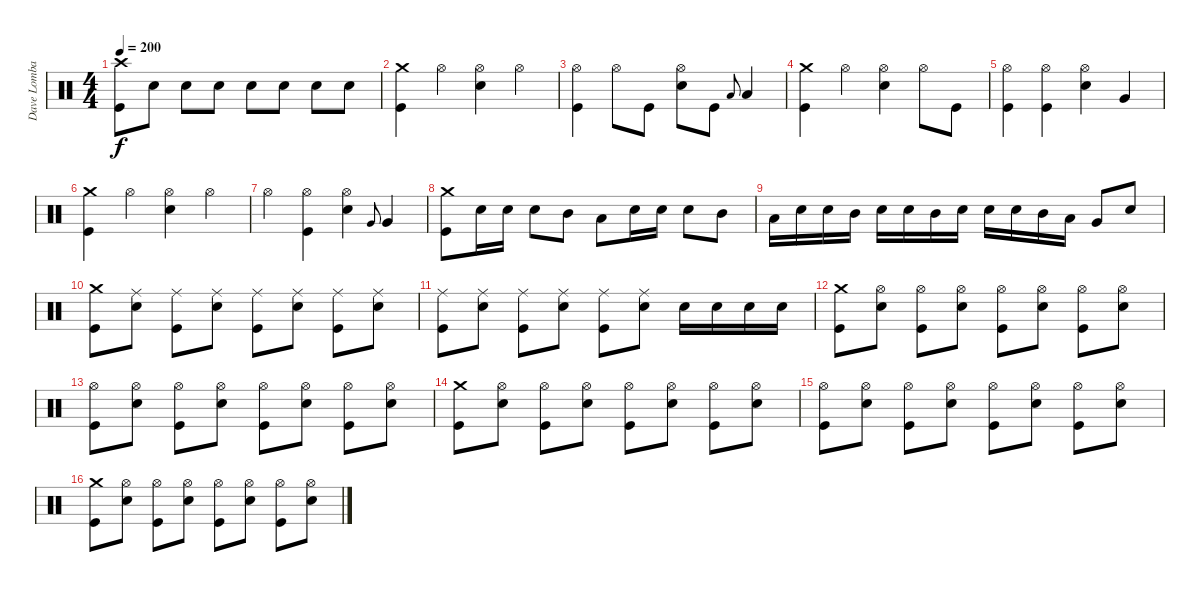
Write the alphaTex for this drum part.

\track ("Dave Lombardo" "Dave Lomba") {instrument percussion}
\staff {score}
\articulation defaults
\ts (4 4)
\tempo 200
\clef neutral
\ks c
("Crash high (hit)" "Kick (hit)").8{dy f} "Snare (hit) 2".8 "Snare (hit) 2".8 "Snare (hit) 2".8 "Snare (hit) 2".8 "Snare (hit) 2".8 "Snare (hit) 2".8 "Snare (hit) 2".8 |
("Crash medium (hit)" "Kick (hit)").4 "Hi-Hat (open)".4 ("Hi-Hat (open)" "Snare (hit) 2").4 "Hi-Hat (open)".4 |
("Hi-Hat (open)" "Kick (hit)").4 "Hi-Hat (open)".8 "Kick (hit)".8 ("Hi-Hat (open)" "Snare (hit) 2").8 "Kick (hit)".8 "Low Floor Tom (hit)".8{gr onbeat} "Low Floor Tom (hit)".4 |
("Crash medium (hit)" "Kick (hit)").4 "Hi-Hat (open)".4 ("Hi-Hat (open)" "Snare (hit) 2").4 "Hi-Hat (open)".8 "Kick (hit)".8 |
("Hi-Hat (open)" "Kick (hit)").4 ("Hi-Hat (open)" "Kick (hit)").4 ("Hi-Hat (open)" "Snare (hit) 2").4 "Very Low Tom (hit)".4 |
("Crash medium (hit)" "Kick (hit)").4 "Hi-Hat (open)".4 ("Hi-Hat (open)" "Snare (hit) 2").4 "Hi-Hat (open)".4 |
"Hi-Hat (open)".4 ("Hi-Hat (open)" "Kick (hit)").4 ("Hi-Hat (open)" "Snare (hit) 2").4 "Very Low Tom (hit)".8{gr onbeat} "Very Low Tom (hit)".4 |
("Crash medium (hit)" "Kick (hit)").8 "Snare (hit) 2".16 "Snare (hit) 2".16 "Snare (hit) 2".8 "Mid Tom (hit)".8 "Low Tom (hit)".8 "Snare (hit) 2".16 "Snare (hit) 2".16 "Snare (hit) 2".8 "Mid Tom (hit)".8 |
"Low Tom (hit)".16 "Snare (hit) 2".16 "Snare (hit) 2".16 "Mid Tom (hit)".16 "Snare (hit) 2".16 "Snare (hit) 2".16 "Mid Tom (hit)".16 "Snare (hit) 2".16 "Snare (hit) 2".16 "Snare (hit) 2".16 "Mid Tom (hit)".16 "Low Tom (hit)".16 "Very Low Tom (hit)".8 "Snare (hit) 2".8 |
("Crash medium (hit)" "Kick (hit)").8 ("Ride (middle)" "Snare (hit) 2").8 ("Ride (middle)" "Kick (hit)").8 ("Ride (middle)" "Snare (hit) 2").8 ("Ride (middle)" "Kick (hit)").8 ("Ride (middle)" "Snare (hit) 2").8 ("Ride (middle)" "Kick (hit)").8 ("Ride (middle)" "Snare (hit) 2").8 |
("Ride (middle)" "Kick (hit)").8 ("Ride (middle)" "Snare (hit) 2").8 ("Ride (middle)" "Kick (hit)").8 ("Ride (middle)" "Snare (hit) 2").8 ("Ride (middle)" "Kick (hit)").8 ("Ride (middle)" "Snare (hit) 2").8 "Snare (hit) 2".16 "Snare (hit) 2".16 "Snare (hit) 2".16 "Snare (hit) 2".16 |
("Crash medium (hit)" "Kick (hit)").8 ("Hi-Hat (open)" "Snare (hit) 2").8 ("Hi-Hat (open)" "Kick (hit)").8 ("Hi-Hat (open)" "Snare (hit) 2").8 ("Hi-Hat (open)" "Kick (hit)").8 ("Hi-Hat (open)" "Snare (hit) 2").8 ("Hi-Hat (open)" "Kick (hit)").8 ("Hi-Hat (open)" "Snare (hit) 2").8 |
("Hi-Hat (open)" "Kick (hit)").8 ("Hi-Hat (open)" "Snare (hit) 2").8 ("Hi-Hat (open)" "Kick (hit)").8 ("Hi-Hat (open)" "Snare (hit) 2").8 ("Hi-Hat (open)" "Kick (hit)").8 ("Hi-Hat (open)" "Snare (hit) 2").8 ("Hi-Hat (open)" "Kick (hit)").8 ("Hi-Hat (open)" "Snare (hit) 2").8 |
("Crash medium (hit)" "Kick (hit)").8 ("Hi-Hat (open)" "Snare (hit) 2").8 ("Hi-Hat (open)" "Kick (hit)").8 ("Hi-Hat (open)" "Snare (hit) 2").8 ("Hi-Hat (open)" "Kick (hit)").8 ("Hi-Hat (open)" "Snare (hit) 2").8 ("Hi-Hat (open)" "Kick (hit)").8 ("Hi-Hat (open)" "Snare (hit) 2").8 |
("Hi-Hat (open)" "Kick (hit)").8 ("Hi-Hat (open)" "Snare (hit) 2").8 ("Hi-Hat (open)" "Kick (hit)").8 ("Hi-Hat (open)" "Snare (hit) 2").8 ("Hi-Hat (open)" "Kick (hit)").8 ("Hi-Hat (open)" "Snare (hit) 2").8 ("Hi-Hat (open)" "Kick (hit)").8 ("Hi-Hat (open)" "Snare (hit) 2").8 |
("Crash medium (hit)" "Kick (hit)").8 ("Hi-Hat (open)" "Snare (hit) 2").8 ("Hi-Hat (open)" "Kick (hit)").8 ("Hi-Hat (open)" "Snare (hit) 2").8 ("Hi-Hat (open)" "Kick (hit)").8 ("Hi-Hat (open)" "Snare (hit) 2").8 ("Hi-Hat (open)" "Kick (hit)").8 ("Hi-Hat (open)" "Snare (hit) 2").8
